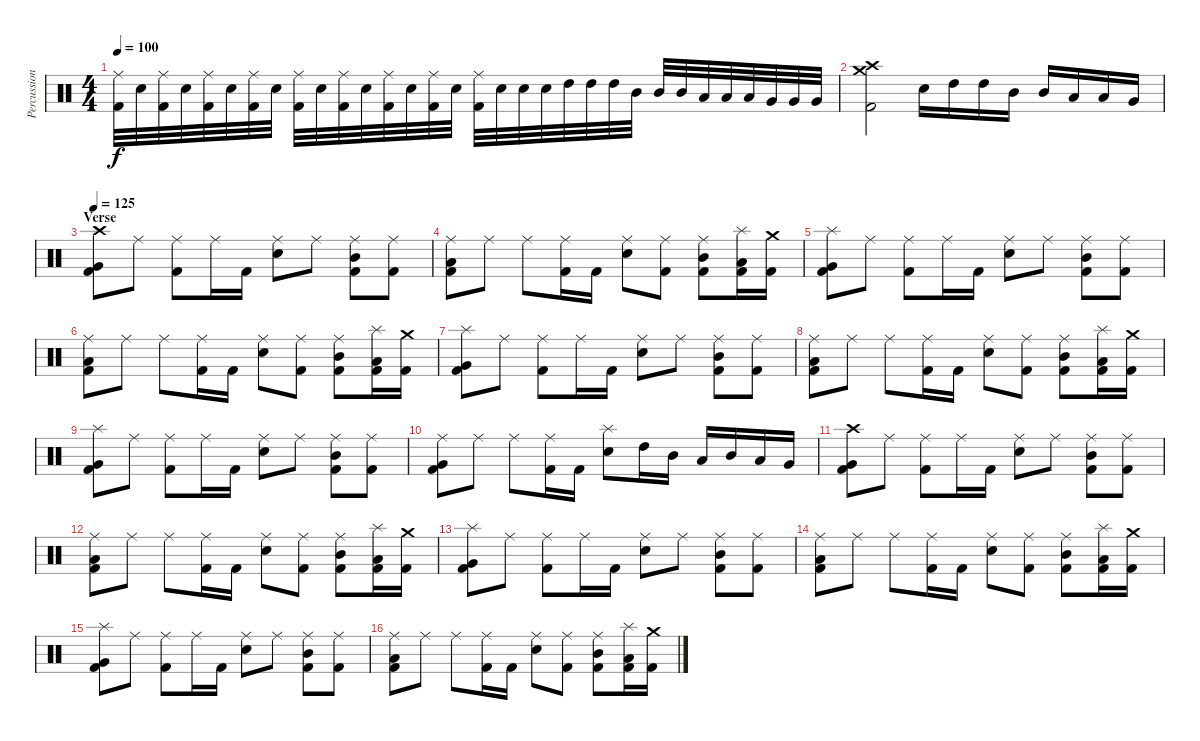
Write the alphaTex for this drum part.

\track ("Percussion" "Percussion") {instrument percussion}
\staff {score}
\articulation defaults
\ts (4 4)
\tempo 100
\clef neutral
\ks c
("Ride (middle)" "Kick (hit) 2").32{dy f} "Snare (hit) 2".32 ("Ride (middle)" "Kick (hit) 2").32 "Snare (hit) 2".32 ("Ride (middle)" "Kick (hit) 2").32 "Snare (hit) 2".32 ("Ride (middle)" "Kick (hit) 2").32 "Snare (hit) 2".32 ("Ride (middle)" "Kick (hit) 2").32 "Snare (hit) 2".32 ("Ride (middle)" "Kick (hit) 2").32 "Snare (hit) 2".32 ("Ride (middle)" "Kick (hit) 2").32 "Snare (hit) 2".32 ("Ride (middle)" "Kick (hit) 2").32 "Snare (hit) 2".32 ("Ride (middle)" "Kick (hit) 2").32 "Snare (hit) 2".32 "Snare (hit) 2".32 "Snare (hit) 2".32 "High Tom (hit)".32 "High Tom (hit)".32 "High Tom (hit)".32 "Mid Tom (hit)".32 "Mid Tom (hit)".32 "Mid Tom (hit)".32 "Low Tom (hit)".32 "Low Tom (hit)".32 "Low Tom (hit)".32 "Very Low Tom (hit)".32 "Very Low Tom (hit)".32 "Very Low Tom (hit)".32 |
("Crash high (hit)" "Crash medium (hit)" "Kick (hit) 2").2 "Snare (hit) 2".16 "High Tom (hit)".16 "High Tom (hit)".16 "Mid Tom (hit)".16 "Mid Tom (hit)".16 "Low Tom (hit)".16 "Low Tom (hit)".16 "Very Low Tom (hit)".16 |
\section ("" "Verse")
\tempo 125
("Crash high (hit)" "Very Low Tom (hit)" "Kick (hit) 2").8 "Ride (middle)".8 ("Ride (middle)" "Kick (hit) 2").8 "Ride (middle)".16 "Kick (hit) 2".16 ("Ride (middle)" "Snare (hit) 2").8 "Ride (middle)".8 ("Ride (middle)" "Mid Tom (hit)" "Kick (hit) 2").8 ("Ride (middle)" "Kick (hit) 2").8 |
("Ride (middle)" "Low Tom (hit)" "Kick (hit) 2").8 "Ride (middle)".8 "Ride (middle)".8 ("Ride (middle)" "Kick (hit) 2").16 "Kick (hit) 2".16 ("Ride (middle)" "Snare (hit) 2").8 ("Ride (middle)" "Kick (hit) 2").8 ("Ride (middle)" "Mid Tom (hit)" "Kick (hit) 2").8 ("Splash (hit)" "Low Tom (hit)" "Kick (hit) 2").16 ("Crash medium (hit)" "Kick (hit) 2").16 |
("Splash (hit)" "Very Low Tom (hit)" "Kick (hit) 2").8 "Ride (middle)".8 ("Ride (middle)" "Kick (hit) 2").8 "Ride (middle)".16 "Kick (hit) 2".16 ("Ride (middle)" "Snare (hit) 2").8 "Ride (middle)".8 ("Ride (middle)" "Mid Tom (hit)" "Kick (hit) 2").8 ("Ride (middle)" "Kick (hit) 2").8 |
("Ride (middle)" "Low Tom (hit)" "Kick (hit) 2").8 "Ride (middle)".8 "Ride (middle)".8 ("Ride (middle)" "Kick (hit) 2").16 "Kick (hit) 2".16 ("Ride (middle)" "Snare (hit) 2").8 ("Ride (middle)" "Kick (hit) 2").8 ("Ride (middle)" "Mid Tom (hit)" "Kick (hit) 2").8 ("Splash (hit)" "Low Tom (hit)" "Kick (hit) 2").16 ("Crash medium (hit)" "Kick (hit) 2").16 |
("Splash (hit)" "Very Low Tom (hit)" "Kick (hit) 2").8 "Ride (middle)".8 ("Ride (middle)" "Kick (hit) 2").8 "Ride (middle)".16 "Kick (hit) 2".16 ("Ride (middle)" "Snare (hit) 2").8 "Ride (middle)".8 ("Ride (middle)" "Mid Tom (hit)" "Kick (hit) 2").8 ("Ride (middle)" "Kick (hit) 2").8 |
("Ride (middle)" "Low Tom (hit)" "Kick (hit) 2").8 "Ride (middle)".8 "Ride (middle)".8 ("Ride (middle)" "Kick (hit) 2").16 "Kick (hit) 2".16 ("Ride (middle)" "Snare (hit) 2").8 ("Ride (middle)" "Kick (hit) 2").8 ("Ride (middle)" "Mid Tom (hit)" "Kick (hit) 2").8 ("Splash (hit)" "Low Tom (hit)" "Kick (hit) 2").16 ("Crash medium (hit)" "Kick (hit) 2").16 |
("Splash (hit)" "Very Low Tom (hit)" "Kick (hit) 2").8 "Ride (middle)".8 ("Ride (middle)" "Kick (hit) 2").8 "Ride (middle)".16 "Kick (hit) 2".16 ("Ride (middle)" "Snare (hit) 2").8 "Ride (middle)".8 ("Ride (middle)" "Mid Tom (hit)" "Kick (hit) 2").8 ("Ride (middle)" "Kick (hit) 2").8 |
("Ride (middle)" "Very Low Tom (hit)" "Kick (hit) 2").8 "Ride (middle)".8 "Ride (middle)".8 ("Ride (middle)" "Kick (hit) 2").16 "Kick (hit) 2".16 ("Splash (hit)" "Snare (hit) 2").8 "High Tom (hit)".16 "Mid Tom (hit)".16 "Low Tom (hit)".16 "Mid Tom (hit)".16 "Low Tom (hit)".16 "Very Low Tom (hit)".16 |
("Crash high (hit)" "Very Low Tom (hit)" "Kick (hit) 2").8 "Ride (middle)".8 ("Ride (middle)" "Kick (hit) 2").8 "Ride (middle)".16 "Kick (hit) 2".16 ("Ride (middle)" "Snare (hit) 2").8 "Ride (middle)".8 ("Ride (middle)" "Mid Tom (hit)" "Kick (hit) 2").8 ("Ride (middle)" "Kick (hit) 2").8 |
("Ride (middle)" "Low Tom (hit)" "Kick (hit) 2").8 "Ride (middle)".8 "Ride (middle)".8 ("Ride (middle)" "Kick (hit) 2").16 "Kick (hit) 2".16 ("Ride (middle)" "Snare (hit) 2").8 ("Ride (middle)" "Kick (hit) 2").8 ("Ride (middle)" "Mid Tom (hit)" "Kick (hit) 2").8 ("Splash (hit)" "Low Tom (hit)" "Kick (hit) 2").16 ("Crash medium (hit)" "Kick (hit) 2").16 |
("Splash (hit)" "Very Low Tom (hit)" "Kick (hit) 2").8 "Ride (middle)".8 ("Ride (middle)" "Kick (hit) 2").8 "Ride (middle)".16 "Kick (hit) 2".16 ("Ride (middle)" "Snare (hit) 2").8 "Ride (middle)".8 ("Ride (middle)" "Mid Tom (hit)" "Kick (hit) 2").8 ("Ride (middle)" "Kick (hit) 2").8 |
("Ride (middle)" "Low Tom (hit)" "Kick (hit) 2").8 "Ride (middle)".8 "Ride (middle)".8 ("Ride (middle)" "Kick (hit) 2").16 "Kick (hit) 2".16 ("Ride (middle)" "Snare (hit) 2").8 ("Ride (middle)" "Kick (hit) 2").8 ("Ride (middle)" "Mid Tom (hit)" "Kick (hit) 2").8 ("Splash (hit)" "Low Tom (hit)" "Kick (hit) 2").16 ("Crash medium (hit)" "Kick (hit) 2").16 |
("Splash (hit)" "Very Low Tom (hit)" "Kick (hit) 2").8 "Ride (middle)".8 ("Ride (middle)" "Kick (hit) 2").8 "Ride (middle)".16 "Kick (hit) 2".16 ("Ride (middle)" "Snare (hit) 2").8 "Ride (middle)".8 ("Ride (middle)" "Mid Tom (hit)" "Kick (hit) 2").8 ("Ride (middle)" "Kick (hit) 2").8 |
("Ride (middle)" "Low Tom (hit)" "Kick (hit) 2").8 "Ride (middle)".8 "Ride (middle)".8 ("Ride (middle)" "Kick (hit) 2").16 "Kick (hit) 2".16 ("Ride (middle)" "Snare (hit) 2").8 ("Ride (middle)" "Kick (hit) 2").8 ("Ride (middle)" "Mid Tom (hit)" "Kick (hit) 2").8 ("Splash (hit)" "Low Tom (hit)" "Kick (hit) 2").16 ("Crash medium (hit)" "Kick (hit) 2").16
